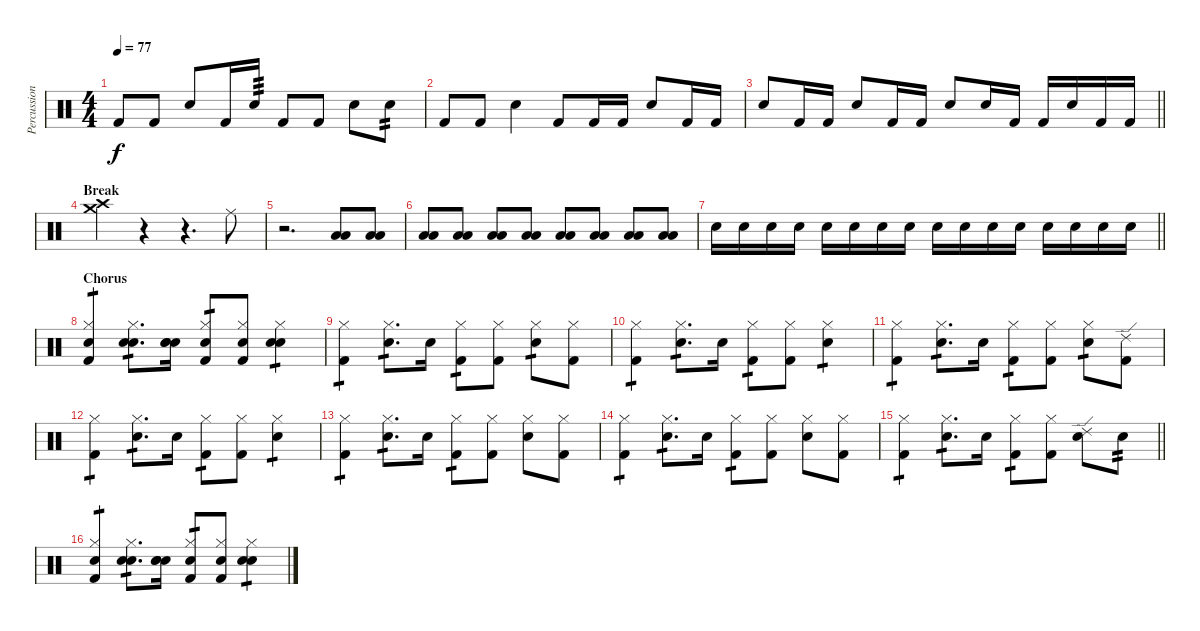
\track ("Percussion" "Percussion") {instrument percussion}
\staff {score}
\articulation defaults
\ts (4 4)
\tempo 77
\clef neutral
\ks c "Kick (hit) 2".8{dy f} "Kick (hit) 2".8 "Electric Snare (hit)".8 "Kick (hit) 2".16 "Electric Snare (hit)".16{tp 3} "Kick (hit) 2".8 "Kick (hit) 2".8 "Electric Snare (hit)".8 "Electric Snare (hit)".8{tp 2}
|
"Kick (hit) 2".8 "Kick (hit) 2".8 "Electric Snare (hit)".4 "Kick (hit) 2".8 "Kick (hit) 2".16 "Kick (hit) 2".16 "Electric Snare (hit)".8 "Kick (hit) 2".16 "Kick (hit) 2".16 |
\barLineRight lightlight "Electric Snare (hit)".8 "Kick (hit) 2".16 "Kick (hit) 2".16 "Electric Snare (hit)".8 "Kick (hit) 2".16 "Kick (hit) 2".16 "Electric Snare (hit)".8 "Electric Snare (hit)".16 "Kick (hit) 2".16 "Kick (hit) 2".16 "Electric Snare (hit)".16 "Kick (hit) 2".16 "Kick (hit) 2".16
|
\section ("" "Break")
("Crash medium (hit)" "Crash high (hit)").4 r.4 r.4{d} "Ride (middle)".8 |
r.2{d} ("Low Tom (hit)" "Low Floor Tom (hit)").8 ("Low Tom (hit)" "Low Floor Tom (hit)").8 |
("Low Tom (hit)" "Low Floor Tom (hit)").8 ("Low Tom (hit)" "Low Floor Tom (hit)").8 ("Low Tom (hit)" "Low Floor Tom (hit)").8 ("Low Tom (hit)" "Low Floor Tom (hit)").8 ("Low Tom (hit)" "Low Floor Tom (hit)").8 ("Low Tom (hit)" "Low Floor Tom (hit)").8 ("Low Tom (hit)" "Low Floor Tom (hit)").8 ("Low Tom (hit)" "Low Floor Tom (hit)").8 |
\barLineRight lightlight "Electric Snare (hit)".16 "Electric Snare (hit)".16 "Electric Snare (hit)".16 "Electric Snare (hit)".16 "Electric Snare (hit)".16 "Electric Snare (hit)".16 "Electric Snare (hit)".16 "Electric Snare (hit)".16 "Electric Snare (hit)".16 "Electric Snare (hit)".16 "Electric Snare (hit)".16 "Electric Snare (hit)".16 "Electric Snare (hit)".16 "Electric Snare (hit)".16 "Electric Snare (hit)".16 "Electric Snare (hit)".16
|
\section ("" "Chorus")
("Kick (hit) 2" "Hi-Hat (closed)" "Snare (hit)").4{tp 1} ("Electric Snare (hit)" "Hi-Hat (closed)" "Snare (hit)").8{d tp 1} ("Electric Snare (hit)" "Snare (hit)" "Snare (hit)").16 ("Kick (hit) 2" "Hi-Hat (closed)" "Snare (hit)").8{tp 1} ("Kick (hit) 2" "Hi-Hat (closed)" "Snare (hit)").8 ("Electric Snare (hit)" "Hi-Hat (closed)" "Snare (hit)").4{tp 1} |
("Kick (hit) 2" "Hi-Hat (closed)").4{tp 1} ("Electric Snare (hit)" "Hi-Hat (closed)").8{d tp 1} "Electric Snare (hit)".16 ("Kick (hit) 2" "Hi-Hat (closed)").8{tp 1} ("Kick (hit) 2" "Hi-Hat (closed)").8 ("Electric Snare (hit)" "Hi-Hat (closed)").8{tp 1} ("Kick (hit) 2" "Hi-Hat (closed)").8 |
("Kick (hit) 2" "Hi-Hat (closed)").4{tp 1} ("Electric Snare (hit)" "Hi-Hat (closed)").8{d tp 1} "Electric Snare (hit)".16 ("Kick (hit) 2" "Hi-Hat (closed)").8{tp 1} ("Kick (hit) 2" "Hi-Hat (closed)").8 ("Electric Snare (hit)" "Hi-Hat (closed)").4{tp 1} |
("Kick (hit) 2" "Hi-Hat (closed)").4{tp 1} ("Electric Snare (hit)" "Hi-Hat (closed)").8{d tp 1} "Electric Snare (hit)".16 ("Kick (hit) 2" "Hi-Hat (closed)").8{tp 1} ("Kick (hit) 2" "Hi-Hat (closed)").8 ("Electric Snare (hit)" "Hi-Hat (closed)").8{tp 1} ("Kick (hit) 2" "Ride (edge) 2").8 |
("Kick (hit) 2" "Hi-Hat (closed)").4{tp 1} ("Electric Snare (hit)" "Hi-Hat (closed)").8{d tp 1} "Electric Snare (hit)".16 ("Kick (hit) 2" "Hi-Hat (closed)").8{tp 1} ("Kick (hit) 2" "Hi-Hat (closed)").8 ("Electric Snare (hit)" "Hi-Hat (closed)").4{tp 1} |
("Kick (hit) 2" "Hi-Hat (closed)").4{tp 1} ("Electric Snare (hit)" "Hi-Hat (closed)").8{d tp 1} "Electric Snare (hit)".16 ("Kick (hit) 2" "Hi-Hat (closed)").8{tp 1} ("Kick (hit) 2" "Hi-Hat (closed)").8 ("Electric Snare (hit)" "Hi-Hat (closed)").8 ("Kick (hit) 2" "Hi-Hat (closed)").8 |
("Kick (hit) 2" "Hi-Hat (closed)").4{tp 1} ("Electric Snare (hit)" "Hi-Hat (closed)").8{d tp 1} "Electric Snare (hit)".16 ("Kick (hit) 2" "Hi-Hat (closed)").8{tp 1} ("Kick (hit) 2" "Hi-Hat (closed)").8 ("Electric Snare (hit)" "Hi-Hat (closed)").8 ("Kick (hit) 2" "Hi-Hat (closed)").8 |
\barLineRight lightlight
("Kick (hit) 2" "Hi-Hat (closed)").4{tp 1} ("Electric Snare (hit)" "Hi-Hat (closed)").8{d tp 1} "Electric Snare (hit)".16 ("Kick (hit) 2" "Hi-Hat (closed)").8{tp 1} ("Kick (hit) 2" "Hi-Hat (closed)").8 ("Electric Snare (hit)" "Ride (edge) 2").8 "Electric Snare (hit)".8{tp 2} |
("Kick (hit) 2" "Hi-Hat (closed)" "Snare (hit)").4{tp 1} ("Electric Snare (hit)" "Hi-Hat (closed)" "Snare (hit)").8{d tp 1} ("Electric Snare (hit)" "Snare (hit)" "Snare (hit)").16 ("Kick (hit) 2" "Hi-Hat (closed)" "Snare (hit)").8{tp 1} ("Kick (hit) 2" "Hi-Hat (closed)" "Snare (hit)").8 ("Electric Snare (hit)" "Hi-Hat (closed)" "Snare (hit)").4{tp 1}
